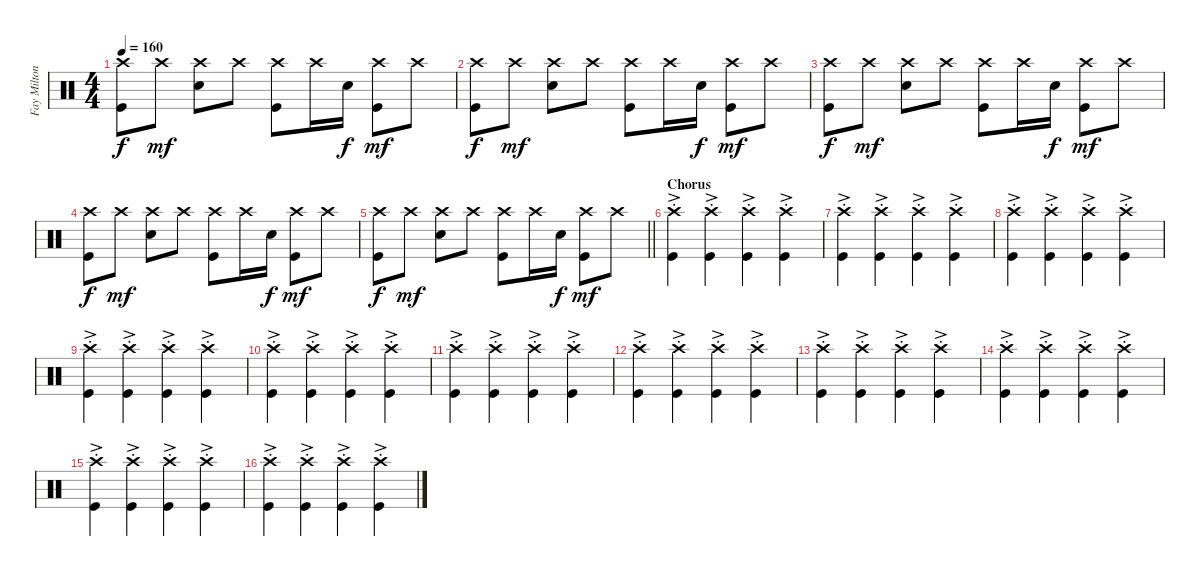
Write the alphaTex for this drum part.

\track ("Fay Milton - Drums" "Fay Milton") {instrument percussion}
\staff {score}
\articulation defaults
\ts (4 4)
\tempo 160
\clef neutral
\ks c
("Crash high (hit)" "Kick (hit)").8{dy f} "Crash high (hit)".8{dy mf} ("Crash high (hit)" "Snare (hit) 2").8 "Crash high (hit)".8 ("Crash high (hit)" "Kick (hit)").8 "Crash high (hit)".16 "Snare (hit) 2".16{dy f} ("Crash high (hit)" "Kick (hit)").8{dy mf} "Crash high (hit)".8 |
("Crash high (hit)" "Kick (hit)").8{dy f} "Crash high (hit)".8{dy mf} ("Crash high (hit)" "Snare (hit) 2").8 "Crash high (hit)".8 ("Crash high (hit)" "Kick (hit)").8 "Crash high (hit)".16 "Snare (hit) 2".16{dy f} ("Crash high (hit)" "Kick (hit)").8{dy mf} "Crash high (hit)".8 |
("Crash high (hit)" "Kick (hit)").8{dy f} "Crash high (hit)".8{dy mf} ("Crash high (hit)" "Snare (hit) 2").8 "Crash high (hit)".8 ("Crash high (hit)" "Kick (hit)").8 "Crash high (hit)".16 "Snare (hit) 2".16{dy f} ("Crash high (hit)" "Kick (hit)").8{dy mf} "Crash high (hit)".8 |
("Crash high (hit)" "Kick (hit)").8{dy f} "Crash high (hit)".8{dy mf} ("Crash high (hit)" "Snare (hit) 2").8 "Crash high (hit)".8 ("Crash high (hit)" "Kick (hit)").8 "Crash high (hit)".16 "Snare (hit) 2".16{dy f} ("Crash high (hit)" "Kick (hit)").8{dy mf} "Crash high (hit)".8 |
\barLineRight lightlight
("Crash high (hit)" "Kick (hit)").8{dy f} "Crash high (hit)".8{dy mf} ("Crash high (hit)" "Snare (hit) 2").8 "Crash high (hit)".8 ("Crash high (hit)" "Kick (hit)").8 "Crash high (hit)".16 "Snare (hit) 2".16{dy f} ("Crash high (hit)" "Kick (hit)").8{dy mf} "Crash high (hit)".8 |
\section ("" "Chorus")
("Crash high (hit)"{ac st} "Kick (hit)"{st}).4 ("Crash high (hit)"{ac st} "Kick (hit)"{st}).4 ("Crash high (hit)"{ac st} "Kick (hit)"{st}).4 ("Crash high (hit)"{ac st} "Kick (hit)"{st}).4 |
("Crash high (hit)"{ac st} "Kick (hit)"{st}).4 ("Crash high (hit)"{ac st} "Kick (hit)"{st}).4 ("Crash high (hit)"{ac st} "Kick (hit)"{st}).4 ("Crash high (hit)"{ac st} "Kick (hit)"{st}).4 |
("Crash high (hit)"{ac st} "Kick (hit)"{st}).4 ("Crash high (hit)"{ac st} "Kick (hit)"{st}).4 ("Crash high (hit)"{ac st} "Kick (hit)"{st}).4 ("Crash high (hit)"{ac st} "Kick (hit)"{st}).4 |
("Crash high (hit)"{ac st} "Kick (hit)"{st}).4 ("Crash high (hit)"{ac st} "Kick (hit)"{st}).4 ("Crash high (hit)"{ac st} "Kick (hit)"{st}).4 ("Crash high (hit)"{ac st} "Kick (hit)"{st}).4 |
("Crash high (hit)"{ac st} "Kick (hit)"{st}).4 ("Crash high (hit)"{ac st} "Kick (hit)"{st}).4 ("Crash high (hit)"{ac st} "Kick (hit)"{st}).4 ("Crash high (hit)"{ac st} "Kick (hit)"{st}).4 |
("Crash high (hit)"{ac st} "Kick (hit)"{st}).4 ("Crash high (hit)"{ac st} "Kick (hit)"{st}).4 ("Crash high (hit)"{ac st} "Kick (hit)"{st}).4 ("Crash high (hit)"{ac st} "Kick (hit)"{st}).4 |
("Crash high (hit)"{ac st} "Kick (hit)"{st}).4 ("Crash high (hit)"{ac st} "Kick (hit)"{st}).4 ("Crash high (hit)"{ac st} "Kick (hit)"{st}).4 ("Crash high (hit)"{ac st} "Kick (hit)"{st}).4 |
("Crash high (hit)"{ac st} "Kick (hit)"{st}).4 ("Crash high (hit)"{ac st} "Kick (hit)"{st}).4 ("Crash high (hit)"{ac st} "Kick (hit)"{st}).4 ("Crash high (hit)"{ac st} "Kick (hit)"{st}).4 |
("Crash high (hit)"{ac st} "Kick (hit)"{st}).4 ("Crash high (hit)"{ac st} "Kick (hit)"{st}).4 ("Crash high (hit)"{ac st} "Kick (hit)"{st}).4 ("Crash high (hit)"{ac st} "Kick (hit)"{st}).4 |
("Crash high (hit)"{ac st} "Kick (hit)"{st}).4 ("Crash high (hit)"{ac st} "Kick (hit)"{st}).4 ("Crash high (hit)"{ac st} "Kick (hit)"{st}).4 ("Crash high (hit)"{ac st} "Kick (hit)"{st}).4 |
("Crash high (hit)"{ac st} "Kick (hit)"{st}).4 ("Crash high (hit)"{ac st} "Kick (hit)"{st}).4 ("Crash high (hit)"{ac st} "Kick (hit)"{st}).4 ("Crash high (hit)"{ac st} "Kick (hit)"{st}).4
